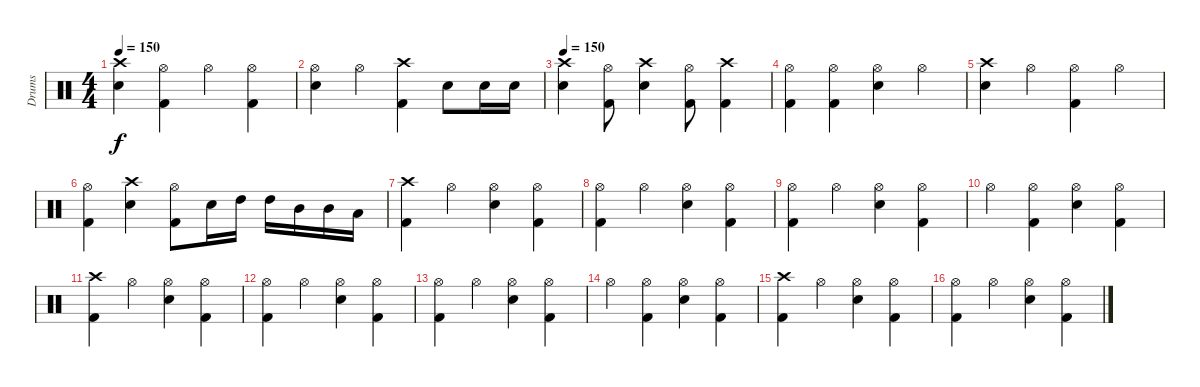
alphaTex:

\track ("Drums" "Drums") {instrument percussion}
\staff {score}
\articulation defaults
\ts (4 4)
\tempo 150
\clef neutral
\ks c
("Crash high (hit)" "Electric Snare (hit)").4{dy f} ("Hi-Hat (open)" "Kick (hit) 2").4 "Hi-Hat (open)".4 ("Hi-Hat (open)" "Kick (hit) 2").4 |
("Hi-Hat (open)" "Electric Snare (hit)").4 "Hi-Hat (open)".4 ("Crash high (hit)" "Kick (hit) 2").4 "Electric Snare (hit)".8 "Electric Snare (hit)".16 "Electric Snare (hit)".16 |
\tempo 150
("Crash high (hit)" "Electric Snare (hit)").4 ("Kick (hit) 2" "Hi-Hat (open)").8 ("Crash high (hit)" "Electric Snare (hit)").4 ("Hi-Hat (open)" "Kick (hit) 2").8 ("Crash high (hit)" "Kick (hit) 2").4 |
("Hi-Hat (open)" "Kick (hit) 2").4 ("Hi-Hat (open)" "Kick (hit) 2").4 ("Hi-Hat (open)" "Electric Snare (hit)").4 "Hi-Hat (open)".4 |
("Crash high (hit)" "Electric Snare (hit)").4 "Hi-Hat (open)".4 ("Hi-Hat (open)" "Kick (hit) 2").4 "Hi-Hat (open)".4 |
("Hi-Hat (open)" "Kick (hit) 2").4 ("Crash high (hit)" "Electric Snare (hit)").4 ("Hi-Hat (open)" "Kick (hit) 2").8 "Electric Snare (hit)".16 "High Tom (hit)".16 "High Tom (hit)".16 "Mid Tom (hit)".16 "Mid Tom (hit)".16 "Low Tom (hit)".16 |
("Crash high (hit)" "Kick (hit) 2").4 "Hi-Hat (open)".4 ("Hi-Hat (open)" "Electric Snare (hit)").4 ("Hi-Hat (open)" "Kick (hit) 2").4 |
("Hi-Hat (open)" "Kick (hit) 2").4 "Hi-Hat (open)".4 ("Hi-Hat (open)" "Electric Snare (hit)").4 ("Hi-Hat (open)" "Kick (hit) 2").4 |
("Hi-Hat (open)" "Kick (hit) 2").4 "Hi-Hat (open)".4 ("Hi-Hat (open)" "Electric Snare (hit)").4 ("Hi-Hat (open)" "Kick (hit) 2").4 |
"Hi-Hat (open)".4 ("Hi-Hat (open)" "Kick (hit) 2").4 ("Hi-Hat (open)" "Electric Snare (hit)").4 ("Hi-Hat (open)" "Kick (hit) 2").4 |
("Crash high (hit)" "Kick (hit) 2").4 "Hi-Hat (open)".4 ("Hi-Hat (open)" "Electric Snare (hit)").4 ("Hi-Hat (open)" "Kick (hit) 2").4 |
("Hi-Hat (open)" "Kick (hit) 2").4 "Hi-Hat (open)".4 ("Hi-Hat (open)" "Electric Snare (hit)").4 ("Hi-Hat (open)" "Kick (hit) 2").4 |
("Hi-Hat (open)" "Kick (hit) 2").4 "Hi-Hat (open)".4 ("Hi-Hat (open)" "Electric Snare (hit)").4 ("Hi-Hat (open)" "Kick (hit) 2").4 |
"Hi-Hat (open)".4 ("Hi-Hat (open)" "Kick (hit) 2").4 ("Hi-Hat (open)" "Electric Snare (hit)").4 ("Hi-Hat (open)" "Kick (hit) 2").4 |
("Crash high (hit)" "Kick (hit) 2").4 "Hi-Hat (open)".4 ("Hi-Hat (open)" "Electric Snare (hit)").4 ("Hi-Hat (open)" "Kick (hit) 2").4 |
("Hi-Hat (open)" "Kick (hit) 2").4 "Hi-Hat (open)".4 ("Hi-Hat (open)" "Electric Snare (hit)").4 ("Hi-Hat (open)" "Kick (hit) 2").4
